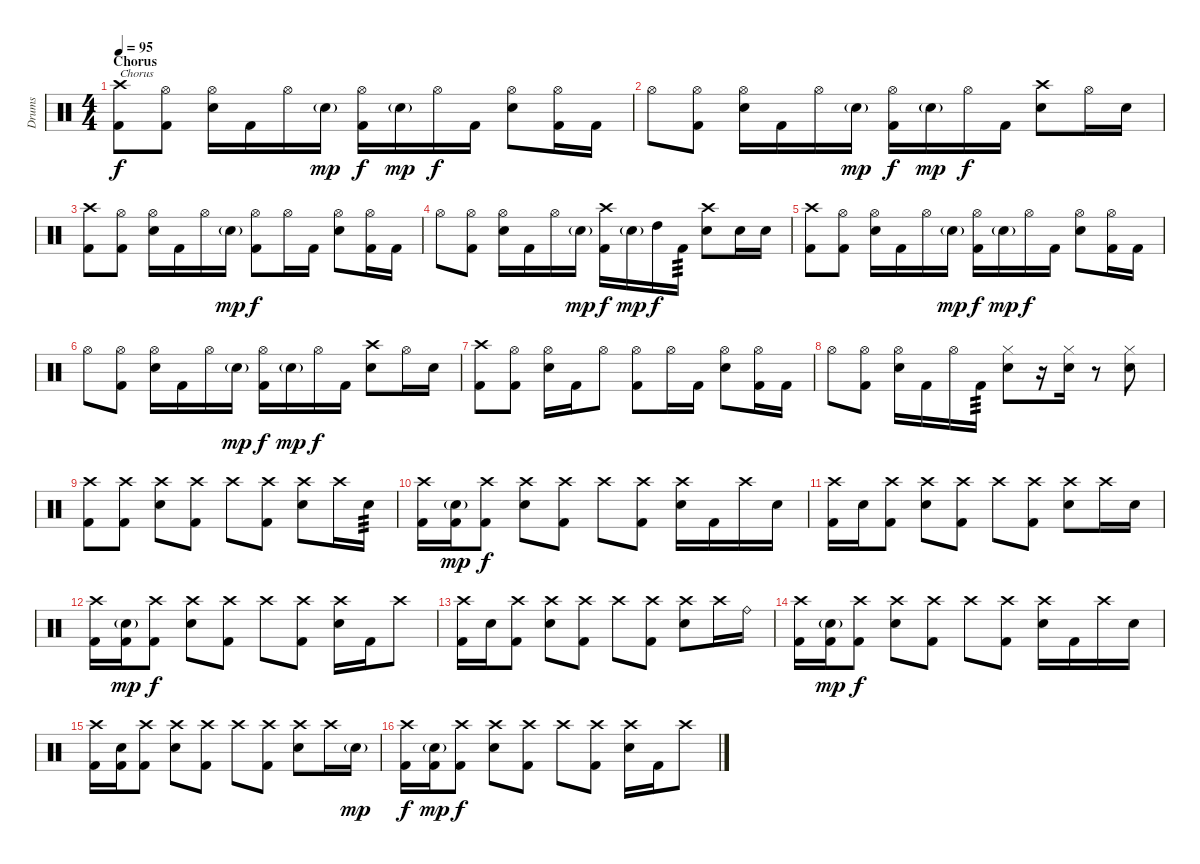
\track ("Drums" "Drums") {instrument percussion}
\staff {score}
\articulation defaults
\ts (4 4)
\section ("" "Chorus")
\tempo 95
\clef neutral
\ks c
("Crash high (hit)" "Kick (hit) 2").8{txt "Chorus" dy f} ("Hi-Hat (open)" "Kick (hit) 2").8 ("Hi-Hat (open)" "Electric Snare (hit)").16 "Kick (hit) 2".16 "Hi-Hat (open)".16 "Electric Snare (hit)"{g}.16{dy mp} ("Hi-Hat (open)" "Kick (hit) 2").16{dy f} "Electric Snare (hit)"{g}.16{dy mp} "Hi-Hat (open)".16{dy f} "Kick (hit) 2".16 ("Hi-Hat (open)" "Electric Snare (hit)").8 ("Hi-Hat (open)" "Kick (hit) 2").16 "Kick (hit) 2".16 |
"Hi-Hat (open)".8 ("Hi-Hat (open)" "Kick (hit) 2").8 ("Hi-Hat (open)" "Electric Snare (hit)").16 "Kick (hit) 2".16 "Hi-Hat (open)".16 "Electric Snare (hit)"{g}.16{dy mp} ("Hi-Hat (open)" "Kick (hit) 2").16{dy f} "Electric Snare (hit)"{g}.16{dy mp} "Hi-Hat (open)".16{dy f} "Kick (hit) 2".16 ("Crash high (hit)" "Electric Snare (hit)").8 "Hi-Hat (open)".16 "Electric Snare (hit)".16 |
("Crash high (hit)" "Kick (hit) 2").8 ("Hi-Hat (open)" "Kick (hit) 2").8 ("Hi-Hat (open)" "Electric Snare (hit)").16 "Kick (hit) 2".16 "Hi-Hat (open)".16 "Electric Snare (hit)"{g}.16{dy mp} ("Hi-Hat (open)" "Kick (hit) 2").8{dy f} "Hi-Hat (open)".16 "Kick (hit) 2".16 ("Hi-Hat (open)" "Electric Snare (hit)").8 ("Hi-Hat (open)" "Kick (hit) 2").16 "Kick (hit) 2".16 |
"Hi-Hat (open)".8 ("Hi-Hat (open)" "Kick (hit) 2").8 ("Hi-Hat (open)" "Electric Snare (hit)").16 "Kick (hit) 2".16 "Hi-Hat (open)".16 "Electric Snare (hit)"{g}.16{dy mp} ("Crash high (hit)" "Kick (hit) 2").16{dy f} "Electric Snare (hit)"{g}.16{dy mp} "High Tom (hit)".16{dy f} "Kick (hit) 2".16{tp 3} ("Crash high (hit)" "Electric Snare (hit)").8 "Electric Snare (hit)".16 "Electric Snare (hit)".16 |
("Crash high (hit)" "Kick (hit) 2").8 ("Hi-Hat (open)" "Kick (hit) 2").8 ("Hi-Hat (open)" "Electric Snare (hit)").16 "Kick (hit) 2".16 "Hi-Hat (open)".16 "Electric Snare (hit)"{g}.16{dy mp} ("Hi-Hat (open)" "Kick (hit) 2").16{dy f} "Electric Snare (hit)"{g}.16{dy mp} "Hi-Hat (open)".16{dy f} "Kick (hit) 2".16 ("Hi-Hat (open)" "Electric Snare (hit)").8 ("Hi-Hat (open)" "Kick (hit) 2").16 "Kick (hit) 2".16 |
"Hi-Hat (open)".8 ("Hi-Hat (open)" "Kick (hit) 2").8 ("Hi-Hat (open)" "Electric Snare (hit)").16 "Kick (hit) 2".16 "Hi-Hat (open)".16 "Electric Snare (hit)"{g}.16{dy mp} ("Hi-Hat (open)" "Kick (hit) 2").16{dy f} "Electric Snare (hit)"{g}.16{dy mp} "Hi-Hat (open)".16{dy f} "Kick (hit) 2".16 ("Crash high (hit)" "Electric Snare (hit)").8 "Hi-Hat (open)".16 "Electric Snare (hit)".16 |
("Crash high (hit)" "Kick (hit) 2").8 ("Hi-Hat (open)" "Kick (hit) 2").8 ("Hi-Hat (open)" "Electric Snare (hit)").16 "Kick (hit) 2".16 "Hi-Hat (open)".8 ("Hi-Hat (open)" "Kick (hit) 2").8 "Hi-Hat (open)".16 "Kick (hit) 2".16 ("Hi-Hat (open)" "Electric Snare (hit)").8 ("Hi-Hat (open)" "Kick (hit) 2").16 "Kick (hit) 2".16 |
"Hi-Hat (open)".8 ("Hi-Hat (open)" "Kick (hit) 2").8 ("Hi-Hat (open)" "Electric Snare (hit)").16 "Kick (hit) 2".16 "Hi-Hat (open)".16 "Kick (hit) 2".16{tp 3} ("Hi-Hat (closed)" "Electric Snare (hit)").8 r.16 ("Hi-Hat (closed)" "Electric Snare (hit)").16 r.8 ("Hi-Hat (closed)" "Electric Snare (hit)").8 |
("Crash high (hit)" "Kick (hit) 2").8 ("Crash high (hit)" "Kick (hit) 2").8 ("Crash high (hit)" "Electric Snare (hit)").8 ("Crash high (hit)" "Kick (hit) 2").8 "Crash high (hit)".8 ("Crash high (hit)" "Kick (hit) 2").8 ("Crash high (hit)" "Electric Snare (hit)").8 "Crash high (hit)".16 "Electric Snare (hit)".16{tp 3} |
("Crash high (hit)" "Kick (hit) 2").16 ("Electric Snare (hit)"{g} "Kick (hit) 2").16{dy mp} ("Crash high (hit)" "Kick (hit) 2").8{dy f} ("Crash high (hit)" "Electric Snare (hit)").8 ("Crash high (hit)" "Kick (hit) 2").8 "Crash high (hit)".8 ("Crash high (hit)" "Kick (hit) 2").8 ("Crash high (hit)" "Electric Snare (hit)").16 "Kick (hit) 2".16 "Crash high (hit)".16 "Electric Snare (hit)".16 |
("Crash high (hit)" "Kick (hit) 2").16 "Electric Snare (hit)".16 ("Crash high (hit)" "Kick (hit) 2").8 ("Crash high (hit)" "Electric Snare (hit)").8 ("Crash high (hit)" "Kick (hit) 2").8 "Crash high (hit)".8 ("Crash high (hit)" "Kick (hit) 2").8 ("Crash high (hit)" "Electric Snare (hit)").8 "Crash high (hit)".16 "Electric Snare (hit)".16 |
("Crash high (hit)" "Kick (hit) 2").16 ("Electric Snare (hit)"{g} "Kick (hit) 2").16{dy mp} ("Crash high (hit)" "Kick (hit) 2").8{dy f} ("Crash high (hit)" "Electric Snare (hit)").8 ("Crash high (hit)" "Kick (hit) 2").8 "Crash high (hit)".8 ("Crash high (hit)" "Kick (hit) 2").8 ("Crash high (hit)" "Electric Snare (hit)").16 "Kick (hit) 2".16 "Crash high (hit)".8 |
("Crash high (hit)" "Kick (hit) 2").16 "Electric Snare (hit)".16 ("Crash high (hit)" "Kick (hit) 2").8 ("Crash high (hit)" "Electric Snare (hit)").8 ("Crash high (hit)" "Kick (hit) 2").8 "Crash high (hit)".8 ("Crash high (hit)" "Kick (hit) 2").8 ("Crash high (hit)" "Electric Snare (hit)").8 "Crash high (hit)".16 "Ride (bell)".16 |
("Crash high (hit)" "Kick (hit) 2").16 ("Electric Snare (hit)"{g} "Kick (hit) 2").16{dy mp} ("Crash high (hit)" "Kick (hit) 2").8{dy f} ("Crash high (hit)" "Electric Snare (hit)").8 ("Crash high (hit)" "Kick (hit) 2").8 "Crash high (hit)".8 ("Crash high (hit)" "Kick (hit) 2").8 ("Crash high (hit)" "Electric Snare (hit)").16 "Kick (hit) 2".16 "Crash high (hit)".16 "Electric Snare (hit)".16 |
("Crash high (hit)" "Kick (hit) 2").16 ("Electric Snare (hit)" "Kick (hit) 2").16 ("Crash high (hit)" "Kick (hit) 2").8 ("Crash high (hit)" "Electric Snare (hit)").8 ("Crash high (hit)" "Kick (hit) 2").8 "Crash high (hit)".8 ("Crash high (hit)" "Kick (hit) 2").8 ("Crash high (hit)" "Electric Snare (hit)").8 "Crash high (hit)".16 "Electric Snare (hit)"{g}.16{dy mp} |
("Crash high (hit)" "Kick (hit) 2").16{dy f} ("Electric Snare (hit)"{g} "Kick (hit) 2").16{dy mp} ("Crash high (hit)" "Kick (hit) 2").8{dy f} ("Crash high (hit)" "Electric Snare (hit)").8 ("Crash high (hit)" "Kick (hit) 2").8 "Crash high (hit)".8 ("Crash high (hit)" "Kick (hit) 2").8 ("Crash high (hit)" "Electric Snare (hit)").16 "Kick (hit) 2".16 "Crash high (hit)".8
